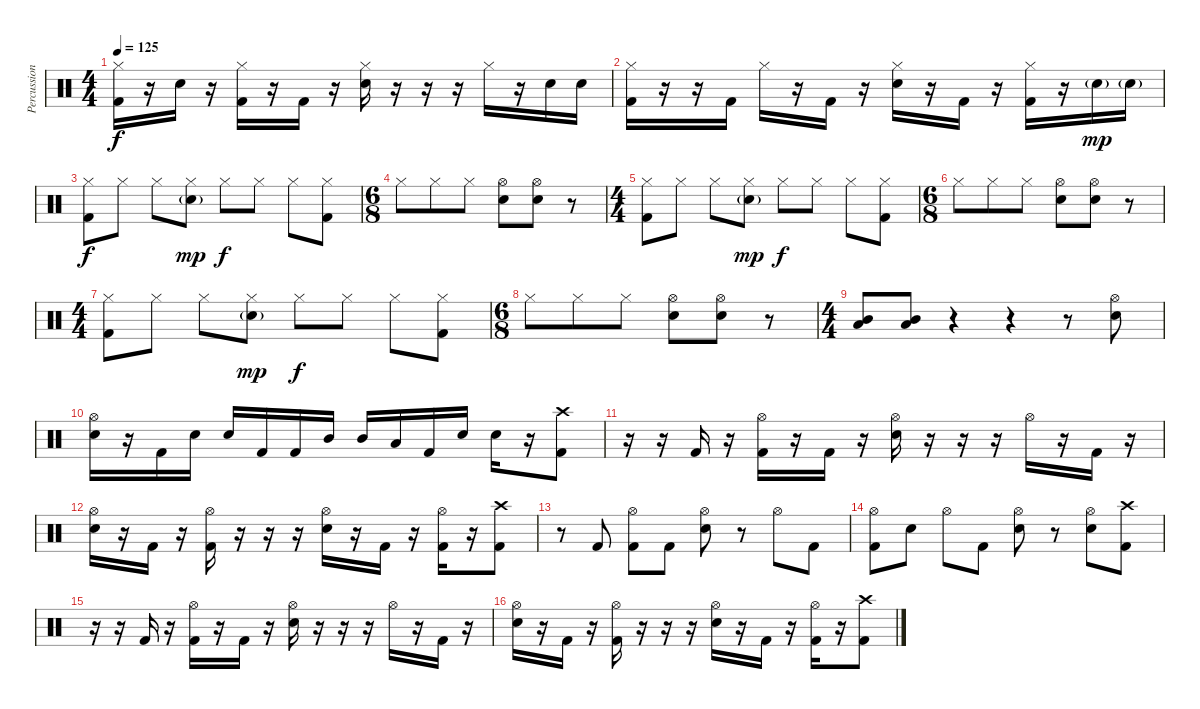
\track ("Percussion" "Percussion") {instrument percussion}
\staff {score}
\articulation defaults
\ts (4 4)
\tempo 125
\clef neutral
\ks c
("Hi-Hat (closed)" "Kick (hit) 2").16{dy f} r.16 "Electric Snare (hit)".16 r.16 ("Hi-Hat (closed)" "Kick (hit) 2").16 r.16 "Kick (hit) 2".16 r.16 ("Hi-Hat (closed)" "Electric Snare (hit)").16 r.16 r.16 r.16 "Hi-Hat (closed)".16 r.16 "Electric Snare (hit)".16 "Electric Snare (hit)".16 |
("Hi-Hat (closed)" "Kick (hit) 2").16 r.16 r.16 "Kick (hit) 2".16 "Hi-Hat (closed)".16 r.16 "Kick (hit) 2".16 r.16 ("Hi-Hat (closed)" "Electric Snare (hit)").16 r.16 "Kick (hit) 2".16 r.16 ("Hi-Hat (closed)" "Kick (hit) 2").16 r.16 "Electric Snare (hit)"{g}.16{dy mp} "Electric Snare (hit)"{g}.16 |
("Hi-Hat (closed)" "Kick (hit) 2").8{dy f} "Hi-Hat (closed)".8 "Hi-Hat (closed)".8 ("Hi-Hat (closed)" "Electric Snare (hit)"{g}).8{dy mp} "Hi-Hat (closed)".8{dy f} "Hi-Hat (closed)".8 "Hi-Hat (closed)".8 ("Hi-Hat (closed)" "Kick (hit) 2").8 |
\ts (6 8)
"Hi-Hat (closed)".8 "Hi-Hat (closed)".8 "Hi-Hat (closed)".8 ("Hi-Hat (open)" "Electric Snare (hit)").8 ("Hi-Hat (open)" "Electric Snare (hit)").8 r.8 |
\ts (4 4)
("Hi-Hat (closed)" "Kick (hit) 2").8 "Hi-Hat (closed)".8 "Hi-Hat (closed)".8 ("Hi-Hat (closed)" "Electric Snare (hit)"{g}).8{dy mp} "Hi-Hat (closed)".8{dy f} "Hi-Hat (closed)".8 "Hi-Hat (closed)".8 ("Hi-Hat (closed)" "Kick (hit) 2").8 |
\ts (6 8)
"Hi-Hat (closed)".8 "Hi-Hat (closed)".8 "Hi-Hat (closed)".8 ("Hi-Hat (open)" "Electric Snare (hit)").8 ("Hi-Hat (open)" "Electric Snare (hit)").8 r.8 |
\ts (4 4)
("Hi-Hat (closed)" "Kick (hit) 2").8 "Hi-Hat (closed)".8 "Hi-Hat (closed)".8 ("Hi-Hat (closed)" "Electric Snare (hit)"{g}).8{dy mp} "Hi-Hat (closed)".8{dy f} "Hi-Hat (closed)".8 "Hi-Hat (closed)".8 ("Hi-Hat (closed)" "Kick (hit) 2").8 |
\ts (6 8)
"Hi-Hat (closed)".8 "Hi-Hat (closed)".8 "Hi-Hat (closed)".8 ("Hi-Hat (open)" "Electric Snare (hit)").8 ("Hi-Hat (open)" "Electric Snare (hit)").8 r.8 |
\ts (4 4)
("Mid Tom (hit)" "Low Tom (hit)").8 ("Mid Tom (hit)" "Low Tom (hit)").8 r.4 r.4 r.8 ("Hi-Hat (open)" "Electric Snare (hit)").8 |
("Hi-Hat (open)" "Electric Snare (hit)").16 r.16 "Kick (hit) 2".16 "Electric Snare (hit)".16 "Electric Snare (hit)".16 "Kick (hit) 2".16 "Kick (hit) 2".16 "Mid Tom (hit)".16 "Mid Tom (hit)".16 "Low Tom (hit)".16 "Kick (hit) 2".16 "Electric Snare (hit)".16 "Electric Snare (hit)".16 r.16 ("Crash high (hit)" "Kick (hit) 2").8 |
r.16 r.16 "Kick (hit) 2".16 r.16 ("Hi-Hat (open)" "Kick (hit) 2").16 r.16 "Kick (hit) 2".16 r.16 ("Hi-Hat (open)" "Electric Snare (hit)").16 r.16 r.16 r.16 "Hi-Hat (open)".16 r.16 "Kick (hit) 2".16 r.16 |
("Hi-Hat (open)" "Electric Snare (hit)").16 r.16 "Kick (hit) 2".16 r.16 ("Hi-Hat (open)" "Kick (hit) 2").16 r.16 r.16 r.16 ("Hi-Hat (open)" "Electric Snare (hit)").16 r.16 "Kick (hit) 2".16 r.16 ("Hi-Hat (open)" "Kick (hit) 2").16 r.16 ("Crash high (hit)" "Kick (hit) 2").8 |
r.8 "Kick (hit) 2".8 ("Hi-Hat (open)" "Kick (hit) 2").8 "Kick (hit) 2".8 ("Hi-Hat (open)" "Electric Snare (hit)").8 r.8 "Hi-Hat (open)".8 "Kick (hit) 2".8 |
("Hi-Hat (open)" "Kick (hit) 2").8 "Electric Snare (hit)".8 "Hi-Hat (open)".8 "Kick (hit) 2".8 ("Hi-Hat (open)" "Electric Snare (hit)").8 r.8 ("Hi-Hat (open)" "Electric Snare (hit)").8 ("Crash high (hit)" "Kick (hit) 2").8 |
r.16 r.16 "Kick (hit) 2".16 r.16 ("Hi-Hat (open)" "Kick (hit) 2").16 r.16 "Kick (hit) 2".16 r.16 ("Hi-Hat (open)" "Electric Snare (hit)").16 r.16 r.16 r.16 "Hi-Hat (open)".16 r.16 "Kick (hit) 2".16 r.16 |
("Hi-Hat (open)" "Electric Snare (hit)").16 r.16 "Kick (hit) 2".16 r.16 ("Hi-Hat (open)" "Kick (hit) 2").16 r.16 r.16 r.16 ("Hi-Hat (open)" "Electric Snare (hit)").16 r.16 "Kick (hit) 2".16 r.16 ("Hi-Hat (open)" "Kick (hit) 2").16 r.16 ("Crash high (hit)" "Kick (hit) 2").8
